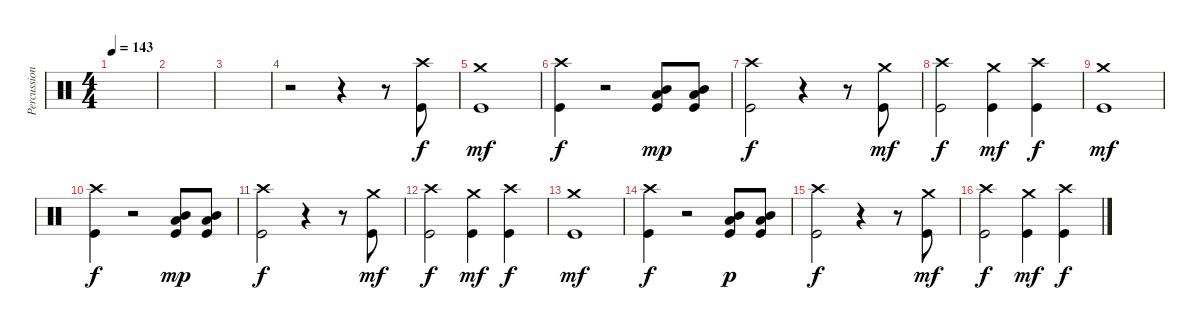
\track ("Percussions" "Percussion") {instrument percussion}
\staff {score}
\articulation defaults
\ts (4 4)
\tempo 143
\clef neutral
\ks c
|
|
|
r.2 r.4 r.8 ("Kick (hit)" "Crash high (hit)").8 |
("Kick (hit)" "Crash medium (hit)").1{dy mf} |
("Kick (hit)" "Crash high (hit)").4{dy f} r.2 ("Kick (hit)" "Low Floor Tom (hit)" "Mid Tom (hit)").8{dy mp} ("Kick (hit)" "Low Floor Tom (hit)" "Mid Tom (hit)").8 |
("Kick (hit)" "Crash high (hit)").2{dy f} r.4 r.8 ("Kick (hit)" "Crash medium (hit)").8{dy mf} |
("Kick (hit)" "Crash high (hit)").2{dy f} ("Kick (hit)" "Crash medium (hit)").4{dy mf} ("Kick (hit)" "Crash high (hit)").4{dy f} |
("Kick (hit)" "Crash medium (hit)").1{dy mf} |
("Kick (hit)" "Crash high (hit)").4{dy f} r.2 ("Kick (hit)" "Low Floor Tom (hit)" "Mid Tom (hit)").8{dy mp} ("Kick (hit)" "Low Floor Tom (hit)" "Mid Tom (hit)").8 |
("Kick (hit)" "Crash high (hit)").2{dy f} r.4 r.8 ("Kick (hit)" "Crash medium (hit)").8{dy mf} |
("Kick (hit)" "Crash high (hit)").2{dy f} ("Kick (hit)" "Crash medium (hit)").4{dy mf} ("Kick (hit)" "Crash high (hit)").4{dy f} |
("Kick (hit)" "Crash medium (hit)").1{dy mf} |
("Kick (hit)" "Crash high (hit)").4{dy f} r.2 ("Kick (hit)" "Low Floor Tom (hit)" "Mid Tom (hit)").8{dy p} ("Kick (hit)" "Low Floor Tom (hit)" "Mid Tom (hit)").8 |
("Kick (hit)" "Crash high (hit)").2{dy f} r.4 r.8 ("Kick (hit)" "Crash medium (hit)").8{dy mf} |
("Kick (hit)" "Crash high (hit)").2{dy f} ("Kick (hit)" "Crash medium (hit)").4{dy mf} ("Kick (hit)" "Crash high (hit)").4{dy f}
